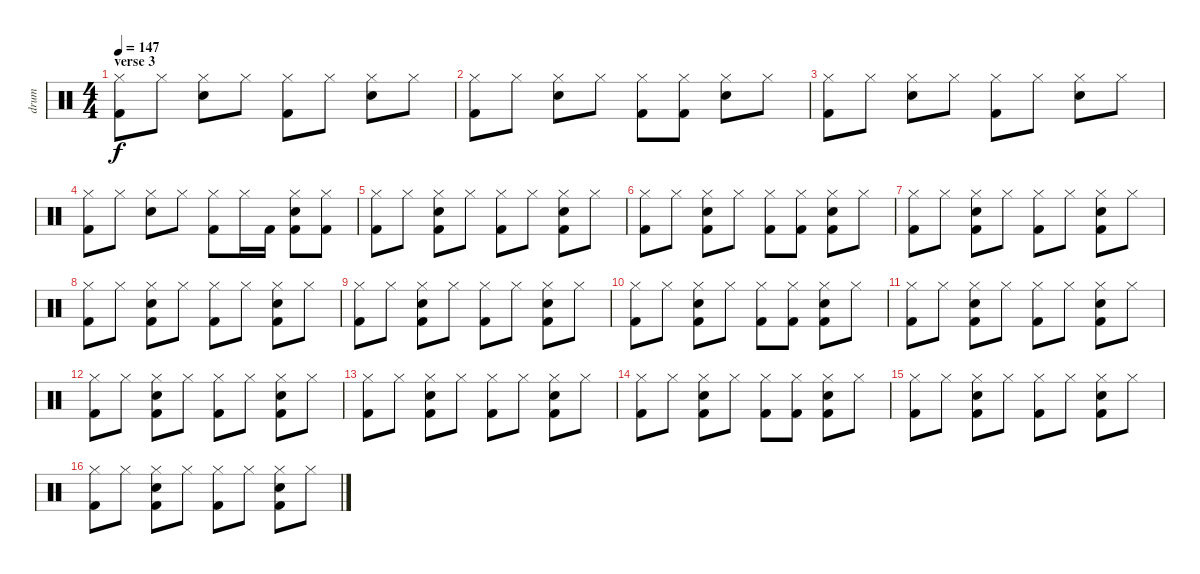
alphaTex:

\track ("drum" "drum") {instrument percussion}
\staff {score}
\articulation defaults
\ts (4 4)
\section ("" "verse 3")
\tempo 147
\clef neutral
\ks c
("Hi-Hat (closed)" "Kick (hit) 2").8{dy f} "Hi-Hat (closed)".8 ("Hi-Hat (closed)" "Electric Snare (hit)").8 "Hi-Hat (closed)".8 ("Hi-Hat (closed)" "Kick (hit) 2").8 "Hi-Hat (closed)".8 ("Hi-Hat (closed)" "Electric Snare (hit)").8 "Hi-Hat (closed)".8 |
("Hi-Hat (closed)" "Kick (hit) 2").8 "Hi-Hat (closed)".8 ("Hi-Hat (closed)" "Electric Snare (hit)").8 "Hi-Hat (closed)".8 ("Hi-Hat (closed)" "Kick (hit) 2").8 ("Hi-Hat (closed)" "Kick (hit) 2").8 ("Hi-Hat (closed)" "Electric Snare (hit)").8 "Hi-Hat (closed)".8 |
("Hi-Hat (closed)" "Kick (hit) 2").8 "Hi-Hat (closed)".8 ("Hi-Hat (closed)" "Electric Snare (hit)").8 "Hi-Hat (closed)".8 ("Hi-Hat (closed)" "Kick (hit) 2").8 "Hi-Hat (closed)".8 ("Hi-Hat (closed)" "Electric Snare (hit)").8 "Hi-Hat (closed)".8 |
("Hi-Hat (closed)" "Kick (hit) 2").8 "Hi-Hat (closed)".8 ("Hi-Hat (closed)" "Electric Snare (hit)").8 "Hi-Hat (closed)".8 ("Hi-Hat (closed)" "Kick (hit) 2").8 "Hi-Hat (closed)".16 "Kick (hit) 2".16 ("Hi-Hat (closed)" "Electric Snare (hit)" "Kick (hit) 2").8 ("Hi-Hat (closed)" "Kick (hit) 2").8 |
("Hi-Hat (closed)" "Kick (hit) 2").8 "Hi-Hat (closed)".8 ("Hi-Hat (closed)" "Electric Snare (hit)" "Kick (hit) 2").8 "Hi-Hat (closed)".8 ("Hi-Hat (closed)" "Kick (hit) 2").8 "Hi-Hat (closed)".8 ("Hi-Hat (closed)" "Electric Snare (hit)" "Kick (hit) 2").8 "Hi-Hat (closed)".8 |
("Hi-Hat (closed)" "Kick (hit) 2").8 "Hi-Hat (closed)".8 ("Hi-Hat (closed)" "Electric Snare (hit)" "Kick (hit) 2").8 "Hi-Hat (closed)".8 ("Hi-Hat (closed)" "Kick (hit) 2").8 ("Hi-Hat (closed)" "Kick (hit) 2").8 ("Hi-Hat (closed)" "Electric Snare (hit)" "Kick (hit) 2").8 "Hi-Hat (closed)".8 |
("Hi-Hat (closed)" "Kick (hit) 2").8 "Hi-Hat (closed)".8 ("Hi-Hat (closed)" "Electric Snare (hit)" "Kick (hit) 2").8 "Hi-Hat (closed)".8 ("Hi-Hat (closed)" "Kick (hit) 2").8 "Hi-Hat (closed)".8 ("Hi-Hat (closed)" "Electric Snare (hit)" "Kick (hit) 2").8 "Hi-Hat (closed)".8 |
("Hi-Hat (closed)" "Kick (hit) 2").8 "Hi-Hat (closed)".8 ("Hi-Hat (closed)" "Electric Snare (hit)" "Kick (hit) 2").8 "Hi-Hat (closed)".8 ("Hi-Hat (closed)" "Kick (hit) 2").8 "Hi-Hat (closed)".8 ("Hi-Hat (closed)" "Electric Snare (hit)" "Kick (hit) 2").8 "Hi-Hat (closed)".8 |
("Hi-Hat (closed)" "Kick (hit) 2").8 "Hi-Hat (closed)".8 ("Hi-Hat (closed)" "Electric Snare (hit)" "Kick (hit) 2").8 "Hi-Hat (closed)".8 ("Hi-Hat (closed)" "Kick (hit) 2").8 "Hi-Hat (closed)".8 ("Hi-Hat (closed)" "Electric Snare (hit)" "Kick (hit) 2").8 "Hi-Hat (closed)".8 |
("Hi-Hat (closed)" "Kick (hit) 2").8 "Hi-Hat (closed)".8 ("Hi-Hat (closed)" "Electric Snare (hit)" "Kick (hit) 2").8 "Hi-Hat (closed)".8 ("Hi-Hat (closed)" "Kick (hit) 2").8 ("Hi-Hat (closed)" "Kick (hit) 2").8 ("Hi-Hat (closed)" "Electric Snare (hit)" "Kick (hit) 2").8 "Hi-Hat (closed)".8 |
("Hi-Hat (closed)" "Kick (hit) 2").8 "Hi-Hat (closed)".8 ("Hi-Hat (closed)" "Electric Snare (hit)" "Kick (hit) 2").8 "Hi-Hat (closed)".8 ("Hi-Hat (closed)" "Kick (hit) 2").8 "Hi-Hat (closed)".8 ("Hi-Hat (closed)" "Electric Snare (hit)" "Kick (hit) 2").8 "Hi-Hat (closed)".8 |
("Hi-Hat (closed)" "Kick (hit) 2").8 "Hi-Hat (closed)".8 ("Hi-Hat (closed)" "Electric Snare (hit)" "Kick (hit) 2").8 "Hi-Hat (closed)".8 ("Hi-Hat (closed)" "Kick (hit) 2").8 "Hi-Hat (closed)".8 ("Hi-Hat (closed)" "Electric Snare (hit)" "Kick (hit) 2").8 "Hi-Hat (closed)".8 |
("Hi-Hat (closed)" "Kick (hit) 2").8 "Hi-Hat (closed)".8 ("Hi-Hat (closed)" "Electric Snare (hit)" "Kick (hit) 2").8 "Hi-Hat (closed)".8 ("Hi-Hat (closed)" "Kick (hit) 2").8 "Hi-Hat (closed)".8 ("Hi-Hat (closed)" "Electric Snare (hit)" "Kick (hit) 2").8 "Hi-Hat (closed)".8 |
("Hi-Hat (closed)" "Kick (hit) 2").8 "Hi-Hat (closed)".8 ("Hi-Hat (closed)" "Electric Snare (hit)" "Kick (hit) 2").8 "Hi-Hat (closed)".8 ("Hi-Hat (closed)" "Kick (hit) 2").8 ("Hi-Hat (closed)" "Kick (hit) 2").8 ("Hi-Hat (closed)" "Electric Snare (hit)" "Kick (hit) 2").8 "Hi-Hat (closed)".8 |
("Hi-Hat (closed)" "Kick (hit) 2").8 "Hi-Hat (closed)".8 ("Hi-Hat (closed)" "Electric Snare (hit)" "Kick (hit) 2").8 "Hi-Hat (closed)".8 ("Hi-Hat (closed)" "Kick (hit) 2").8 "Hi-Hat (closed)".8 ("Hi-Hat (closed)" "Electric Snare (hit)" "Kick (hit) 2").8 "Hi-Hat (closed)".8 |
("Hi-Hat (closed)" "Kick (hit) 2").8 "Hi-Hat (closed)".8 ("Hi-Hat (closed)" "Electric Snare (hit)" "Kick (hit) 2").8 "Hi-Hat (closed)".8 ("Hi-Hat (closed)" "Kick (hit) 2").8 "Hi-Hat (closed)".8 ("Hi-Hat (closed)" "Electric Snare (hit)" "Kick (hit) 2").8 "Hi-Hat (closed)".8
